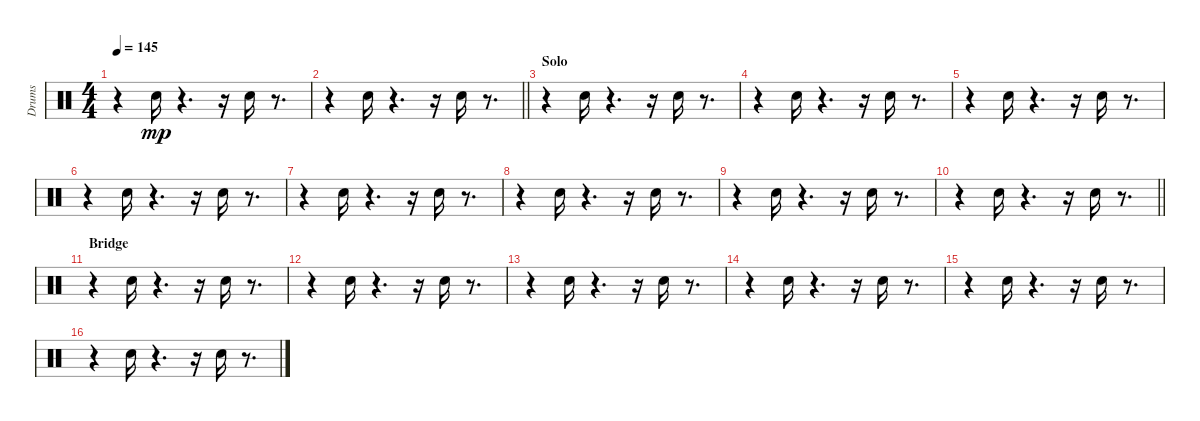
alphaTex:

\track ("Drums" "Drums") {instrument percussion}
\staff {score}
\articulation defaults
\ts (4 4)
\tempo 145
\clef neutral
\ks c
r.4{dy mp} "Snare (hit) 2".16 r.4{d} r.16 "Snare (hit) 2".16 r.8{d} |
\barLineRight lightlight
r.4 "Snare (hit) 2".16 r.4{d} r.16 "Snare (hit) 2".16 r.8{d} |
\section ("" "Solo")
r.4 "Snare (hit) 2".16 r.4{d} r.16 "Snare (hit) 2".16 r.8{d} |
r.4 "Snare (hit) 2".16 r.4{d} r.16 "Snare (hit) 2".16 r.8{d} |
r.4 "Snare (hit) 2".16 r.4{d} r.16 "Snare (hit) 2".16 r.8{d} |
r.4 "Snare (hit) 2".16 r.4{d} r.16 "Snare (hit) 2".16 r.8{d} |
r.4 "Snare (hit) 2".16 r.4{d} r.16 "Snare (hit) 2".16 r.8{d} |
r.4 "Snare (hit) 2".16 r.4{d} r.16 "Snare (hit) 2".16 r.8{d} |
r.4 "Snare (hit) 2".16 r.4{d} r.16 "Snare (hit) 2".16 r.8{d} |
\barLineRight lightlight
r.4 "Snare (hit) 2".16 r.4{d} r.16 "Snare (hit) 2".16 r.8{d} |
\section ("" "Bridge")
r.4 "Snare (hit) 2".16 r.4{d} r.16 "Snare (hit) 2".16 r.8{d} |
r.4 "Snare (hit) 2".16 r.4{d} r.16 "Snare (hit) 2".16 r.8{d} |
r.4 "Snare (hit) 2".16 r.4{d} r.16 "Snare (hit) 2".16 r.8{d} |
r.4 "Snare (hit) 2".16 r.4{d} r.16 "Snare (hit) 2".16 r.8{d} |
r.4 "Snare (hit) 2".16 r.4{d} r.16 "Snare (hit) 2".16 r.8{d} |
r.4 "Snare (hit) 2".16 r.4{d} r.16 "Snare (hit) 2".16 r.8{d}
